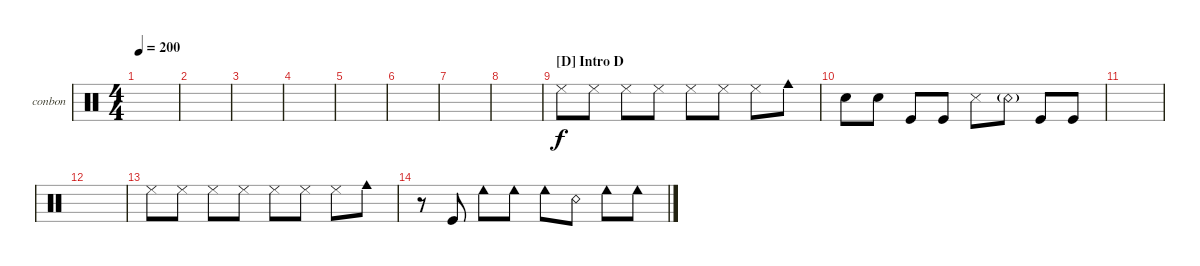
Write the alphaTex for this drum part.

\defaultSystemsLayout 4
\bracketExtendMode groupsimilarinstruments
\firstSystemTrackNameOrientation horizontal
\otherSystemsTrackNameOrientation horizontal
\track ("Bongos N Congas" "conbon") {instrument percussion}
\staff {score}
\articulation defaults
\ts (4 4)
\tempo 200
\clef neutral
\scale
0.333333
\ks c
|
\scale
0.333333 |
\scale
0.333333 |
\scale
0.333333 |
\scale
0.333333 |
\scale
0.333333 |
\scale
0.333333 |
\scale
0.333333 |
\section ("D" "Intro D")
\scale
0.333333 "Cowbell low (tip)".8 "Cowbell low (tip)".8 "Cowbell low (tip)".8 "Cowbell low (tip)".8 "Cowbell low (tip)".8 "Cowbell low (tip)".8 "Cowbell low (tip)".8 "Cowbell medium (hit)".8 |
\scale
0.333333 "Snare (hit) 2".8 "Snare (hit) 2".8 "Kick (hit)".8 "Kick (hit)".8 "Snare (side stick) 3".8 "Snare (rim shot)"{g}.8 "Kick (hit)".8 "Kick (hit)".8 |
\scale
0.333333 |
\scale
0.333333 |
\scale
0.333333 "Cowbell low (tip)".8 "Cowbell low (tip)".8 "Cowbell low (tip)".8 "Cowbell low (tip)".8 "Cowbell low (tip)".8 "Cowbell low (tip)".8 "Cowbell low (tip)".8 "Cowbell medium (hit)".8 |
\scale
0.333333 r.8 "Kick (hit)".8 "Cowbell low (hit)".8 "Cowbell low (hit)".8 "Cowbell low (hit)".8 "Snare (rim shot)".8 "Cowbell low (hit)".8 "Cowbell low (hit)".8 |
\scale
0.333333 |
\scale
0.333333
